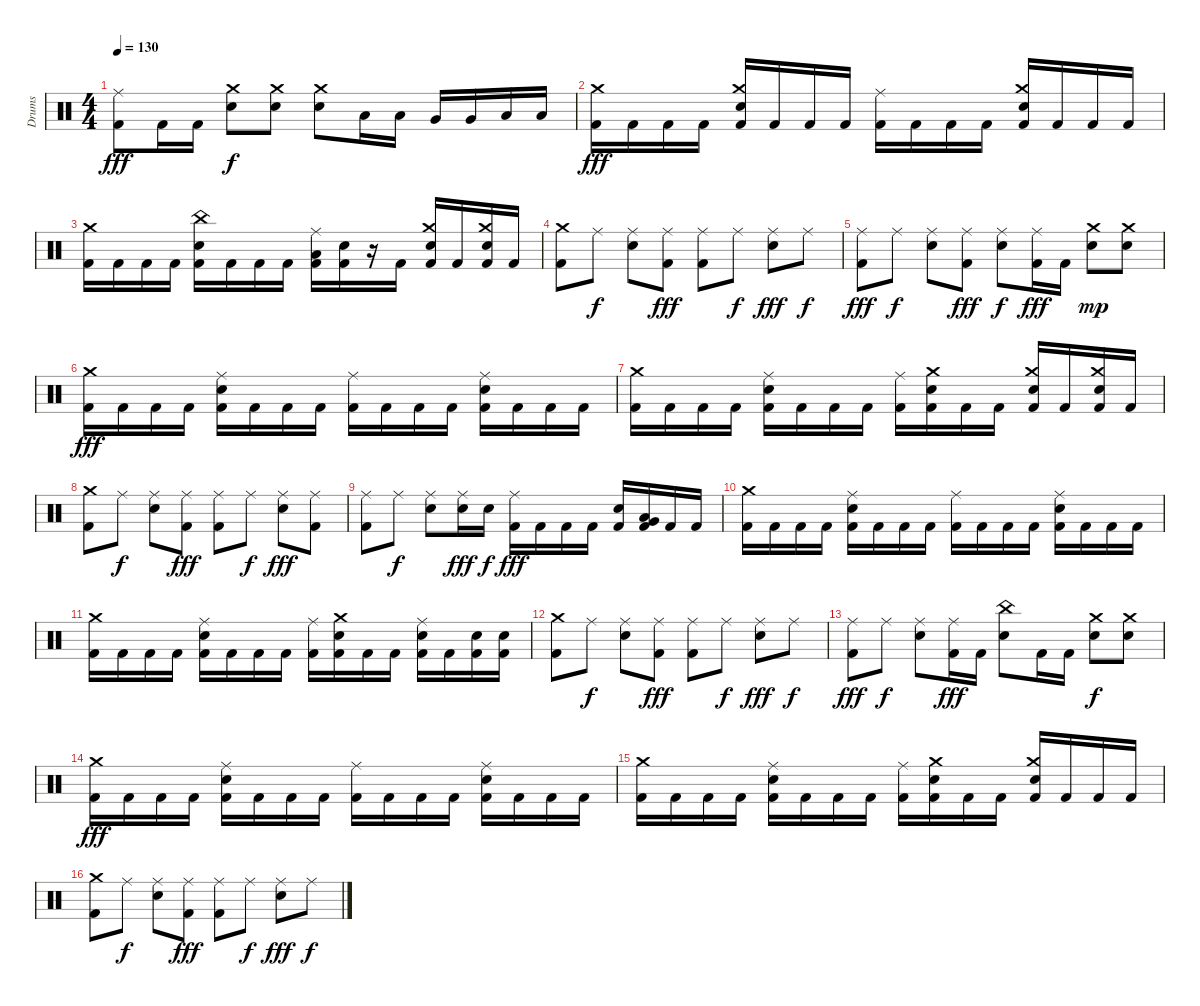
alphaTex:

\track ("Drums" "Drums") {instrument percussion}
\staff {score}
\articulation defaults
\ts (4 4)
\tempo 130
\clef neutral
\ks c
("Ride (middle)" "Kick (hit) 2").8{dy fff} "Kick (hit) 2".16 "Kick (hit) 2".16 ("Crash medium (hit)" "Electric Snare (hit)").8{dy f} ("Crash medium (hit)" "Electric Snare (hit)").8 ("Crash medium (hit)" "Electric Snare (hit)").8 "Low Tom (hit)".16 "Low Tom (hit)".16 "Very Low Tom (hit)".16 "Very Low Tom (hit)".16 "Low Floor Tom (hit)".16 "Low Floor Tom (hit)".16 |
("Crash medium (hit)" "Kick (hit) 2").16{dy fff} "Kick (hit) 2".16 "Kick (hit) 2".16 "Kick (hit) 2".16 ("Crash medium (hit)" "Snare (hit) 2" "Kick (hit) 2").16 "Kick (hit) 2".16 "Kick (hit) 2".16 "Kick (hit) 2".16 ("Ride (middle)" "Kick (hit) 2").16 "Kick (hit) 2".16 "Kick (hit) 2".16 "Kick (hit) 2".16 ("Crash medium (hit)" "Snare (hit) 2" "Kick (hit) 2").16 "Kick (hit) 2".16 "Kick (hit) 2".16 "Kick (hit) 2".16 |
("Crash medium (hit)" "Kick (hit) 2").16 "Kick (hit) 2".16 "Kick (hit) 2".16 "Kick (hit) 2".16 ("China (hit)" "Snare (hit) 2" "Kick (hit) 2").16 "Kick (hit) 2".16 "Kick (hit) 2".16 "Kick (hit) 2".16 ("Ride (middle)" "Low Tom (hit)" "Kick (hit) 2").16 ("Snare (hit) 2" "Kick (hit) 2").16 r.16 "Kick (hit) 2".16 ("Crash medium (hit)" "Snare (hit) 2" "Kick (hit) 2").16 "Kick (hit) 2".16 ("Crash medium (hit)" "Snare (hit) 2" "Kick (hit) 2").16 "Kick (hit) 2".16 |
("Crash medium (hit)" "Kick (hit) 2").8 "Ride (middle)".8{dy f} ("Ride (middle)" "Electric Snare (hit)").8 ("Ride (middle)" "Kick (hit) 2").8{dy fff} ("Ride (middle)" "Kick (hit) 2").8 "Ride (middle)".8{dy f} ("Ride (middle)" "Electric Snare (hit)").8{dy fff} "Ride (middle)".8{dy f} |
("Ride (middle)" "Kick (hit) 2").8{dy fff} "Ride (middle)".8{dy f} ("Ride (middle)" "Electric Snare (hit)").8 ("Ride (middle)" "Kick (hit) 2").8{dy fff} ("Ride (middle)" "Electric Snare (hit)").8{dy f} ("Ride (middle)" "Kick (hit) 2").16{dy fff} "Kick (hit) 2".16 ("Crash medium (hit)" "Electric Snare (hit)").8{dy mp} ("Crash medium (hit)" "Electric Snare (hit)").8 |
("Crash medium (hit)" "Kick (hit) 2").16{dy fff} "Kick (hit) 2".16 "Kick (hit) 2".16 "Kick (hit) 2".16 ("Ride (middle)" "Electric Snare (hit)" "Kick (hit) 2").16 "Kick (hit) 2".16 "Kick (hit) 2".16 "Kick (hit) 2".16 ("Ride (middle)" "Kick (hit) 2").16 "Kick (hit) 2".16 "Kick (hit) 2".16 "Kick (hit) 2".16 ("Ride (middle)" "Electric Snare (hit)" "Kick (hit) 2").16 "Kick (hit) 2".16 "Kick (hit) 2".16 "Kick (hit) 2".16 |
("Crash medium (hit)" "Kick (hit) 2").16 "Kick (hit) 2".16 "Kick (hit) 2".16 "Kick (hit) 2".16 ("Ride (middle)" "Electric Snare (hit)" "Kick (hit) 2").16 "Kick (hit) 2".16 "Kick (hit) 2".16 "Kick (hit) 2".16 ("Ride (middle)" "Kick (hit) 2").16 ("Crash medium (hit)" "Electric Snare (hit)" "Kick (hit) 2").16 "Kick (hit) 2".16 "Kick (hit) 2".16 ("Crash medium (hit)" "Electric Snare (hit)" "Kick (hit) 2").16 "Kick (hit) 2".16 ("Crash medium (hit)" "Electric Snare (hit)" "Kick (hit) 2").16 "Kick (hit) 2".16 |
("Crash medium (hit)" "Kick (hit) 2").8 "Ride (middle)".8{dy f} ("Ride (middle)" "Electric Snare (hit)").8 ("Ride (middle)" "Kick (hit) 2").8{dy fff} ("Ride (middle)" "Kick (hit) 2").8 "Ride (middle)".8{dy f} ("Ride (middle)" "Electric Snare (hit)").8{dy fff} ("Ride (middle)" "Kick (hit) 2").8 |
("Ride (middle)" "Kick (hit) 2").8 "Ride (middle)".8{dy f} ("Ride (middle)" "Electric Snare (hit)").8 ("Ride (middle)" "Electric Snare (hit)").16{dy fff} "Electric Snare (hit)".16{dy f} ("Ride (middle)" "Kick (hit) 2").16{dy fff} "Kick (hit) 2".16 "Kick (hit) 2".16 "Kick (hit) 2".16 ("Electric Snare (hit)" "Kick (hit) 2").16 ("Very Low Tom (hit)" "Low Tom (hit)" "Kick (hit) 2").16 "Kick (hit) 2".16 "Kick (hit) 2".16 |
("Crash medium (hit)" "Kick (hit) 2").16 "Kick (hit) 2".16 "Kick (hit) 2".16 "Kick (hit) 2".16 ("Ride (middle)" "Electric Snare (hit)" "Kick (hit) 2").16 "Kick (hit) 2".16 "Kick (hit) 2".16 "Kick (hit) 2".16 ("Ride (middle)" "Kick (hit) 2").16 "Kick (hit) 2".16 "Kick (hit) 2".16 "Kick (hit) 2".16 ("Ride (middle)" "Electric Snare (hit)" "Kick (hit) 2").16 "Kick (hit) 2".16 "Kick (hit) 2".16 "Kick (hit) 2".16 |
("Crash medium (hit)" "Kick (hit) 2").16 "Kick (hit) 2".16 "Kick (hit) 2".16 "Kick (hit) 2".16 ("Ride (middle)" "Electric Snare (hit)" "Kick (hit) 2").16 "Kick (hit) 2".16 "Kick (hit) 2".16 "Kick (hit) 2".16 ("Ride (middle)" "Kick (hit) 2").16 ("Crash medium (hit)" "Electric Snare (hit)" "Kick (hit) 2").16 "Kick (hit) 2".16 "Kick (hit) 2".16 ("Ride (middle)" "Electric Snare (hit)" "Kick (hit) 2").16 "Kick (hit) 2".16 ("Electric Snare (hit)" "Kick (hit) 2").16 ("Electric Snare (hit)" "Kick (hit) 2").16 |
("Crash medium (hit)" "Kick (hit) 2").8 "Ride (middle)".8{dy f} ("Ride (middle)" "Electric Snare (hit)").8 ("Ride (middle)" "Kick (hit) 2").8{dy fff} ("Ride (middle)" "Kick (hit) 2").8 "Ride (middle)".8{dy f} ("Ride (middle)" "Electric Snare (hit)").8{dy fff} "Ride (middle)".8{dy f} |
("Ride (middle)" "Kick (hit) 2").8{dy fff} "Ride (middle)".8{dy f} ("Ride (middle)" "Electric Snare (hit)").8 ("Ride (middle)" "Kick (hit) 2").16{dy fff} "Kick (hit) 2".16 ("China (hit)" "Electric Snare (hit)").8 "Kick (hit) 2".16 "Kick (hit) 2".16 ("Crash medium (hit)" "Electric Snare (hit)").8{dy f} ("Crash medium (hit)" "Electric Snare (hit)").8 |
("Crash medium (hit)" "Kick (hit) 2").16{dy fff} "Kick (hit) 2".16 "Kick (hit) 2".16 "Kick (hit) 2".16 ("Ride (middle)" "Electric Snare (hit)" "Kick (hit) 2").16 "Kick (hit) 2".16 "Kick (hit) 2".16 "Kick (hit) 2".16 ("Ride (middle)" "Kick (hit) 2").16 "Kick (hit) 2".16 "Kick (hit) 2".16 "Kick (hit) 2".16 ("Ride (middle)" "Electric Snare (hit)" "Kick (hit) 2").16 "Kick (hit) 2".16 "Kick (hit) 2".16 "Kick (hit) 2".16 |
("Crash medium (hit)" "Kick (hit) 2").16 "Kick (hit) 2".16 "Kick (hit) 2".16 "Kick (hit) 2".16 ("Ride (middle)" "Electric Snare (hit)" "Kick (hit) 2").16 "Kick (hit) 2".16 "Kick (hit) 2".16 "Kick (hit) 2".16 ("Ride (middle)" "Kick (hit) 2").16 ("Crash medium (hit)" "Electric Snare (hit)" "Kick (hit) 2").16 "Kick (hit) 2".16 "Kick (hit) 2".16 ("Crash medium (hit)" "Electric Snare (hit)" "Kick (hit) 2").16 "Kick (hit) 2".16 "Kick (hit) 2".16 "Kick (hit) 2".16 |
("Crash medium (hit)" "Kick (hit) 2").8 "Ride (middle)".8{dy f} ("Ride (middle)" "Electric Snare (hit)").8 ("Ride (middle)" "Kick (hit) 2").8{dy fff} ("Ride (middle)" "Kick (hit) 2").8 "Ride (middle)".8{dy f} ("Ride (middle)" "Electric Snare (hit)").8{dy fff} "Ride (middle)".8{dy f}
